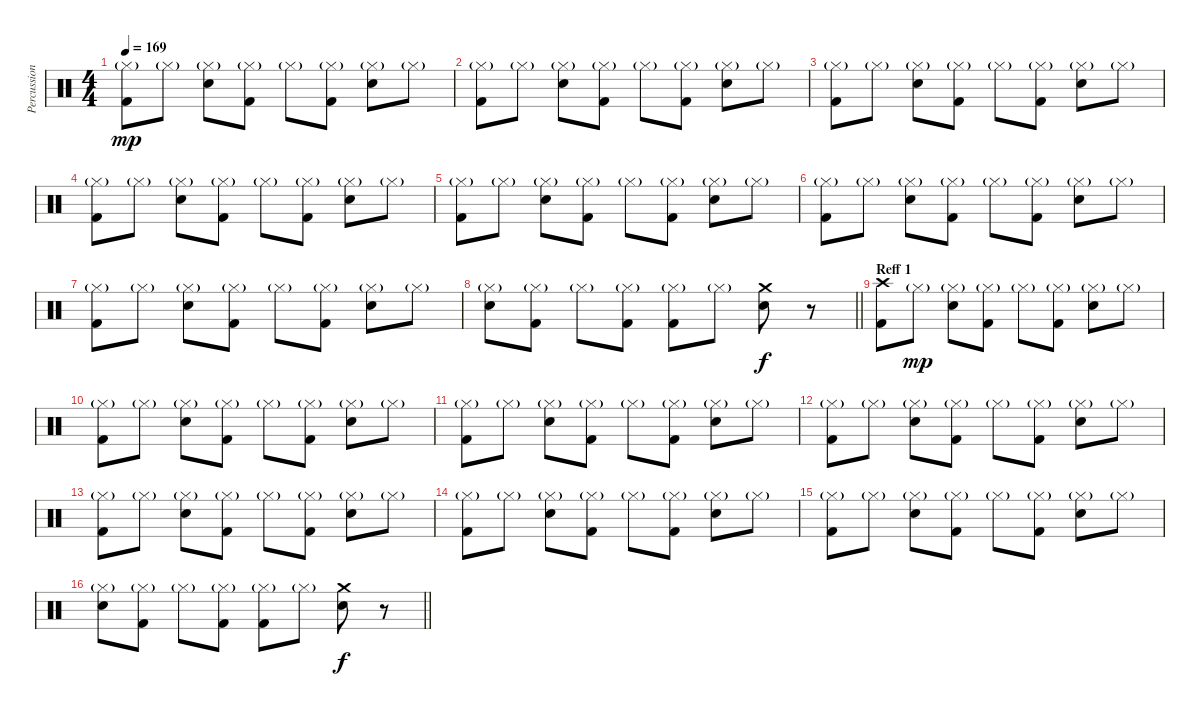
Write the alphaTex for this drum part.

\track ("Percussion" "Percussion") {instrument percussion}
\staff {score}
\articulation defaults
\ts (4 4)
\tempo 169
\clef neutral
\ks c
("Hi-Hat (closed)"{g} "Kick (hit) 2").8{dy mp} "Hi-Hat (closed)"{g}.8 ("Hi-Hat (closed)"{g} "Snare (hit) 2").8 ("Hi-Hat (closed)"{g} "Kick (hit) 2").8 "Hi-Hat (closed)"{g}.8 ("Hi-Hat (closed)"{g} "Kick (hit) 2").8 ("Hi-Hat (closed)"{g} "Snare (hit) 2").8 "Hi-Hat (closed)"{g}.8 |
("Hi-Hat (closed)"{g} "Kick (hit) 2").8 "Hi-Hat (closed)"{g}.8 ("Hi-Hat (closed)"{g} "Snare (hit) 2").8 ("Hi-Hat (closed)"{g} "Kick (hit) 2").8 "Hi-Hat (closed)"{g}.8 ("Hi-Hat (closed)"{g} "Kick (hit) 2").8 ("Hi-Hat (closed)"{g} "Snare (hit) 2").8 "Hi-Hat (closed)"{g}.8 |
("Hi-Hat (closed)"{g} "Kick (hit) 2").8 "Hi-Hat (closed)"{g}.8 ("Hi-Hat (closed)"{g} "Snare (hit) 2").8 ("Hi-Hat (closed)"{g} "Kick (hit) 2").8 "Hi-Hat (closed)"{g}.8 ("Hi-Hat (closed)"{g} "Kick (hit) 2").8 ("Hi-Hat (closed)"{g} "Snare (hit) 2").8 "Hi-Hat (closed)"{g}.8 |
("Hi-Hat (closed)"{g} "Kick (hit) 2").8 "Hi-Hat (closed)"{g}.8 ("Hi-Hat (closed)"{g} "Snare (hit) 2").8 ("Hi-Hat (closed)"{g} "Kick (hit) 2").8 "Hi-Hat (closed)"{g}.8 ("Hi-Hat (closed)"{g} "Kick (hit) 2").8 ("Hi-Hat (closed)"{g} "Snare (hit) 2").8 "Hi-Hat (closed)"{g}.8 |
("Hi-Hat (closed)"{g} "Kick (hit) 2").8 "Hi-Hat (closed)"{g}.8 ("Hi-Hat (closed)"{g} "Snare (hit) 2").8 ("Hi-Hat (closed)"{g} "Kick (hit) 2").8 "Hi-Hat (closed)"{g}.8 ("Hi-Hat (closed)"{g} "Kick (hit) 2").8 ("Hi-Hat (closed)"{g} "Snare (hit) 2").8 "Hi-Hat (closed)"{g}.8 |
("Hi-Hat (closed)"{g} "Kick (hit) 2").8 "Hi-Hat (closed)"{g}.8 ("Hi-Hat (closed)"{g} "Snare (hit) 2").8 ("Hi-Hat (closed)"{g} "Kick (hit) 2").8 "Hi-Hat (closed)"{g}.8 ("Hi-Hat (closed)"{g} "Kick (hit) 2").8 ("Hi-Hat (closed)"{g} "Snare (hit) 2").8 "Hi-Hat (closed)"{g}.8 |
("Hi-Hat (closed)"{g} "Kick (hit) 2").8 "Hi-Hat (closed)"{g}.8 ("Hi-Hat (closed)"{g} "Snare (hit) 2").8 ("Hi-Hat (closed)"{g} "Kick (hit) 2").8 "Hi-Hat (closed)"{g}.8 ("Hi-Hat (closed)"{g} "Kick (hit) 2").8 ("Hi-Hat (closed)"{g} "Snare (hit) 2").8 "Hi-Hat (closed)"{g}.8 |
\barLineRight lightlight
("Hi-Hat (closed)"{g} "Snare (hit) 2").8 ("Hi-Hat (closed)"{g} "Kick (hit) 2").8 "Hi-Hat (closed)"{g}.8 ("Hi-Hat (closed)"{g} "Kick (hit) 2").8 ("Hi-Hat (closed)"{g} "Kick (hit) 2").8 "Hi-Hat (closed)"{g}.8 ("Snare (hit) 2" "Crash medium (hit)").8{dy f} r.8 |
\section ("" "Reff 1")
("Crash high (hit)" "Kick (hit) 2").8 "Hi-Hat (closed)"{g}.8{dy mp} ("Hi-Hat (closed)"{g} "Snare (hit) 2").8 ("Hi-Hat (closed)"{g} "Kick (hit) 2").8 "Hi-Hat (closed)"{g}.8 ("Hi-Hat (closed)"{g} "Kick (hit) 2").8 ("Hi-Hat (closed)"{g} "Snare (hit) 2").8 "Hi-Hat (closed)"{g}.8 |
("Hi-Hat (closed)"{g} "Kick (hit) 2").8 "Hi-Hat (closed)"{g}.8 ("Hi-Hat (closed)"{g} "Snare (hit) 2").8 ("Hi-Hat (closed)"{g} "Kick (hit) 2").8 "Hi-Hat (closed)"{g}.8 ("Hi-Hat (closed)"{g} "Kick (hit) 2").8 ("Hi-Hat (closed)"{g} "Snare (hit) 2").8 "Hi-Hat (closed)"{g}.8 |
("Hi-Hat (closed)"{g} "Kick (hit) 2").8 "Hi-Hat (closed)"{g}.8 ("Hi-Hat (closed)"{g} "Snare (hit) 2").8 ("Hi-Hat (closed)"{g} "Kick (hit) 2").8 "Hi-Hat (closed)"{g}.8 ("Hi-Hat (closed)"{g} "Kick (hit) 2").8 ("Hi-Hat (closed)"{g} "Snare (hit) 2").8 "Hi-Hat (closed)"{g}.8 |
("Hi-Hat (closed)"{g} "Kick (hit) 2").8 "Hi-Hat (closed)"{g}.8 ("Hi-Hat (closed)"{g} "Snare (hit) 2").8 ("Hi-Hat (closed)"{g} "Kick (hit) 2").8 "Hi-Hat (closed)"{g}.8 ("Hi-Hat (closed)"{g} "Kick (hit) 2").8 ("Hi-Hat (closed)"{g} "Snare (hit) 2").8 "Hi-Hat (closed)"{g}.8 |
("Hi-Hat (closed)"{g} "Kick (hit) 2").8 "Hi-Hat (closed)"{g}.8 ("Hi-Hat (closed)"{g} "Snare (hit) 2").8 ("Hi-Hat (closed)"{g} "Kick (hit) 2").8 "Hi-Hat (closed)"{g}.8 ("Hi-Hat (closed)"{g} "Kick (hit) 2").8 ("Hi-Hat (closed)"{g} "Snare (hit) 2").8 "Hi-Hat (closed)"{g}.8 |
("Hi-Hat (closed)"{g} "Kick (hit) 2").8 "Hi-Hat (closed)"{g}.8 ("Hi-Hat (closed)"{g} "Snare (hit) 2").8 ("Hi-Hat (closed)"{g} "Kick (hit) 2").8 "Hi-Hat (closed)"{g}.8 ("Hi-Hat (closed)"{g} "Kick (hit) 2").8 ("Hi-Hat (closed)"{g} "Snare (hit) 2").8 "Hi-Hat (closed)"{g}.8 |
("Hi-Hat (closed)"{g} "Kick (hit) 2").8 "Hi-Hat (closed)"{g}.8 ("Hi-Hat (closed)"{g} "Snare (hit) 2").8 ("Hi-Hat (closed)"{g} "Kick (hit) 2").8 "Hi-Hat (closed)"{g}.8 ("Hi-Hat (closed)"{g} "Kick (hit) 2").8 ("Hi-Hat (closed)"{g} "Snare (hit) 2").8 "Hi-Hat (closed)"{g}.8 |
\barLineRight lightlight
("Hi-Hat (closed)"{g} "Snare (hit) 2").8 ("Hi-Hat (closed)"{g} "Kick (hit) 2").8 "Hi-Hat (closed)"{g}.8 ("Hi-Hat (closed)"{g} "Kick (hit) 2").8 ("Hi-Hat (closed)"{g} "Kick (hit) 2").8 "Hi-Hat (closed)"{g}.8 ("Snare (hit) 2" "Crash medium (hit)").8{dy f} r.8
